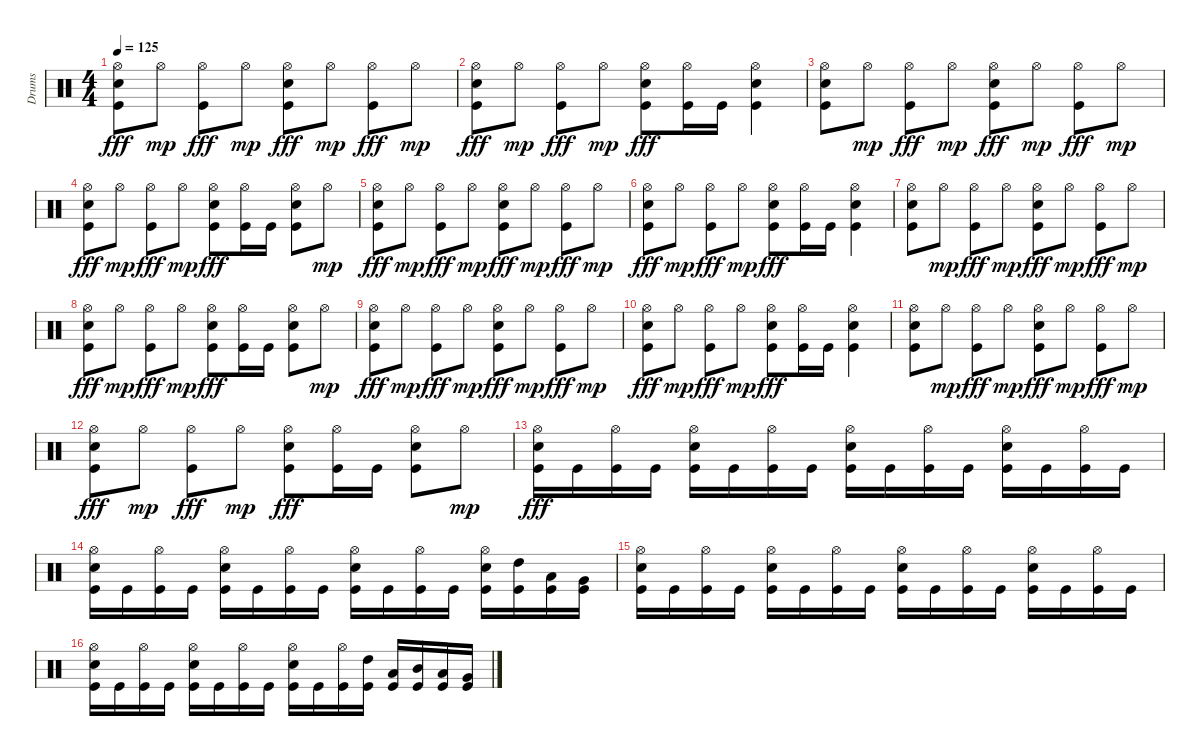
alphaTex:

\track ("Drums" "Drums") {instrument percussion}
\staff {score}
\articulation defaults
\ts (4 4)
\tempo 125
\clef neutral
\ks c
("Hi-Hat (open)" "Snare (hit) 2" "Kick (hit)").8{dy fff} "Hi-Hat (open)".8{dy mp} ("Hi-Hat (open)" "Kick (hit)").8{dy fff} "Hi-Hat (open)".8{dy mp} ("Hi-Hat (open)" "Snare (hit) 2" "Kick (hit)").8{dy fff} "Hi-Hat (open)".8{dy mp} ("Hi-Hat (open)" "Kick (hit)").8{dy fff} "Hi-Hat (open)".8{dy mp} |
("Hi-Hat (open)" "Snare (hit) 2" "Kick (hit)").8{dy fff} "Hi-Hat (open)".8{dy mp} ("Hi-Hat (open)" "Kick (hit)").8{dy fff} "Hi-Hat (open)".8{dy mp} ("Hi-Hat (open)" "Snare (hit) 2" "Kick (hit)").8{dy fff} ("Hi-Hat (open)" "Kick (hit)").16 "Kick (hit)".16 ("Hi-Hat (open)" "Electric Snare (hit)" "Kick (hit)").4 |
("Hi-Hat (open)" "Snare (hit) 2" "Kick (hit)").8 "Hi-Hat (open)".8{dy mp} ("Hi-Hat (open)" "Kick (hit)").8{dy fff} "Hi-Hat (open)".8{dy mp} ("Hi-Hat (open)" "Snare (hit) 2" "Kick (hit)").8{dy fff} "Hi-Hat (open)".8{dy mp} ("Hi-Hat (open)" "Kick (hit)").8{dy fff} "Hi-Hat (open)".8{dy mp} |
("Hi-Hat (open)" "Snare (hit) 2" "Kick (hit)").8{dy fff} "Hi-Hat (open)".8{dy mp} ("Hi-Hat (open)" "Kick (hit)").8{dy fff} "Hi-Hat (open)".8{dy mp} ("Hi-Hat (open)" "Snare (hit) 2" "Kick (hit)").8{dy fff} ("Hi-Hat (open)" "Kick (hit)").16 "Kick (hit)".16 ("Hi-Hat (open)" "Electric Snare (hit)" "Kick (hit)").8 "Hi-Hat (open)".8{dy mp} |
("Hi-Hat (open)" "Snare (hit) 2" "Kick (hit)").8{dy fff} "Hi-Hat (open)".8{dy mp} ("Hi-Hat (open)" "Kick (hit)").8{dy fff} "Hi-Hat (open)".8{dy mp} ("Hi-Hat (open)" "Snare (hit) 2" "Kick (hit)").8{dy fff} "Hi-Hat (open)".8{dy mp} ("Hi-Hat (open)" "Kick (hit)").8{dy fff} "Hi-Hat (open)".8{dy mp} |
("Hi-Hat (open)" "Snare (hit) 2" "Kick (hit)").8{dy fff} "Hi-Hat (open)".8{dy mp} ("Hi-Hat (open)" "Kick (hit)").8{dy fff} "Hi-Hat (open)".8{dy mp} ("Hi-Hat (open)" "Snare (hit) 2" "Kick (hit)").8{dy fff} ("Hi-Hat (open)" "Kick (hit)").16 "Kick (hit)".16 ("Hi-Hat (open)" "Electric Snare (hit)" "Kick (hit)").4 |
("Hi-Hat (open)" "Snare (hit) 2" "Kick (hit)").8 "Hi-Hat (open)".8{dy mp} ("Hi-Hat (open)" "Kick (hit)").8{dy fff} "Hi-Hat (open)".8{dy mp} ("Hi-Hat (open)" "Snare (hit) 2" "Kick (hit)").8{dy fff} "Hi-Hat (open)".8{dy mp} ("Hi-Hat (open)" "Kick (hit)").8{dy fff} "Hi-Hat (open)".8{dy mp} |
("Hi-Hat (open)" "Snare (hit) 2" "Kick (hit)").8{dy fff} "Hi-Hat (open)".8{dy mp} ("Hi-Hat (open)" "Kick (hit)").8{dy fff} "Hi-Hat (open)".8{dy mp} ("Hi-Hat (open)" "Snare (hit) 2" "Kick (hit)").8{dy fff} ("Hi-Hat (open)" "Kick (hit)").16 "Kick (hit)".16 ("Hi-Hat (open)" "Electric Snare (hit)" "Kick (hit)").8 "Hi-Hat (open)".8{dy mp} |
("Hi-Hat (open)" "Snare (hit) 2" "Kick (hit)").8{dy fff} "Hi-Hat (open)".8{dy mp} ("Hi-Hat (open)" "Kick (hit)").8{dy fff} "Hi-Hat (open)".8{dy mp} ("Hi-Hat (open)" "Snare (hit) 2" "Kick (hit)").8{dy fff} "Hi-Hat (open)".8{dy mp} ("Hi-Hat (open)" "Kick (hit)").8{dy fff} "Hi-Hat (open)".8{dy mp} |
("Hi-Hat (open)" "Snare (hit) 2" "Kick (hit)").8{dy fff} "Hi-Hat (open)".8{dy mp} ("Hi-Hat (open)" "Kick (hit)").8{dy fff} "Hi-Hat (open)".8{dy mp} ("Hi-Hat (open)" "Snare (hit) 2" "Kick (hit)").8{dy fff} ("Hi-Hat (open)" "Kick (hit)").16 "Kick (hit)".16 ("Hi-Hat (open)" "Electric Snare (hit)" "Kick (hit)").4 |
("Hi-Hat (open)" "Snare (hit) 2" "Kick (hit)").8 "Hi-Hat (open)".8{dy mp} ("Hi-Hat (open)" "Kick (hit)").8{dy fff} "Hi-Hat (open)".8{dy mp} ("Hi-Hat (open)" "Snare (hit) 2" "Kick (hit)").8{dy fff} "Hi-Hat (open)".8{dy mp} ("Hi-Hat (open)" "Kick (hit)").8{dy fff} "Hi-Hat (open)".8{dy mp} |
("Hi-Hat (open)" "Snare (hit) 2" "Kick (hit)").8{dy fff} "Hi-Hat (open)".8{dy mp} ("Hi-Hat (open)" "Kick (hit)").8{dy fff} "Hi-Hat (open)".8{dy mp} ("Hi-Hat (open)" "Snare (hit) 2" "Kick (hit)").8{dy fff} ("Hi-Hat (open)" "Kick (hit)").16 "Kick (hit)".16 ("Hi-Hat (open)" "Electric Snare (hit)" "Kick (hit)").8 "Hi-Hat (open)".8{dy mp} |
("Hi-Hat (open)" "Electric Snare (hit)" "Kick (hit)").16{dy fff} "Kick (hit)".16 ("Hi-Hat (open)" "Kick (hit)").16 "Kick (hit)".16 ("Hi-Hat (open)" "Electric Snare (hit)" "Kick (hit)").16 "Kick (hit)".16 ("Hi-Hat (open)" "Kick (hit)").16 "Kick (hit)".16 ("Hi-Hat (open)" "Electric Snare (hit)" "Kick (hit)").16 "Kick (hit)".16 ("Hi-Hat (open)" "Kick (hit)").16 "Kick (hit)".16 ("Hi-Hat (open)" "Electric Snare (hit)" "Kick (hit)").16 "Kick (hit)".16 ("Hi-Hat (open)" "Kick (hit)").16 "Kick (hit)".16 |
("Hi-Hat (open)" "Electric Snare (hit)" "Kick (hit)").16 "Kick (hit)".16 ("Hi-Hat (open)" "Kick (hit)").16 "Kick (hit)".16 ("Hi-Hat (open)" "Electric Snare (hit)" "Kick (hit)").16 "Kick (hit)".16 ("Hi-Hat (open)" "Kick (hit)").16 "Kick (hit)".16 ("Hi-Hat (open)" "Electric Snare (hit)" "Kick (hit)").16 "Kick (hit)".16 ("Hi-Hat (open)" "Kick (hit)").16 "Kick (hit)".16 ("Hi-Hat (open)" "Electric Snare (hit)" "Kick (hit)").16 ("High Tom (hit)" "Kick (hit)").16 ("Low Tom (hit)" "Kick (hit)").16 ("Very Low Tom (hit)" "Kick (hit)").16 |
("Hi-Hat (open)" "Electric Snare (hit)" "Kick (hit)").16 "Kick (hit)".16 ("Hi-Hat (open)" "Kick (hit)").16 "Kick (hit)".16 ("Hi-Hat (open)" "Electric Snare (hit)" "Kick (hit)").16 "Kick (hit)".16 ("Hi-Hat (open)" "Kick (hit)").16 "Kick (hit)".16 ("Hi-Hat (open)" "Electric Snare (hit)" "Kick (hit)").16 "Kick (hit)".16 ("Hi-Hat (open)" "Kick (hit)").16 "Kick (hit)".16 ("Hi-Hat (open)" "Electric Snare (hit)" "Kick (hit)").16 "Kick (hit)".16 ("Hi-Hat (open)" "Kick (hit)").16 "Kick (hit)".16 |
("Hi-Hat (open)" "Electric Snare (hit)" "Kick (hit)").16 "Kick (hit)".16 ("Hi-Hat (open)" "Kick (hit)").16 "Kick (hit)".16 ("Hi-Hat (open)" "Electric Snare (hit)" "Kick (hit)").16 "Kick (hit)".16 ("Hi-Hat (open)" "Kick (hit)").16 "Kick (hit)".16 ("Hi-Hat (open)" "Electric Snare (hit)" "Kick (hit)").16 "Kick (hit)".16 ("Hi-Hat (open)" "Kick (hit)").16 ("High Tom (hit)" "Kick (hit)").16 ("Low Tom (hit)" "Kick (hit)").16 ("Mid Tom (hit)" "Kick (hit)").16 ("Low Tom (hit)" "Kick (hit)").16 ("Very Low Tom (hit)" "Kick (hit)").16
